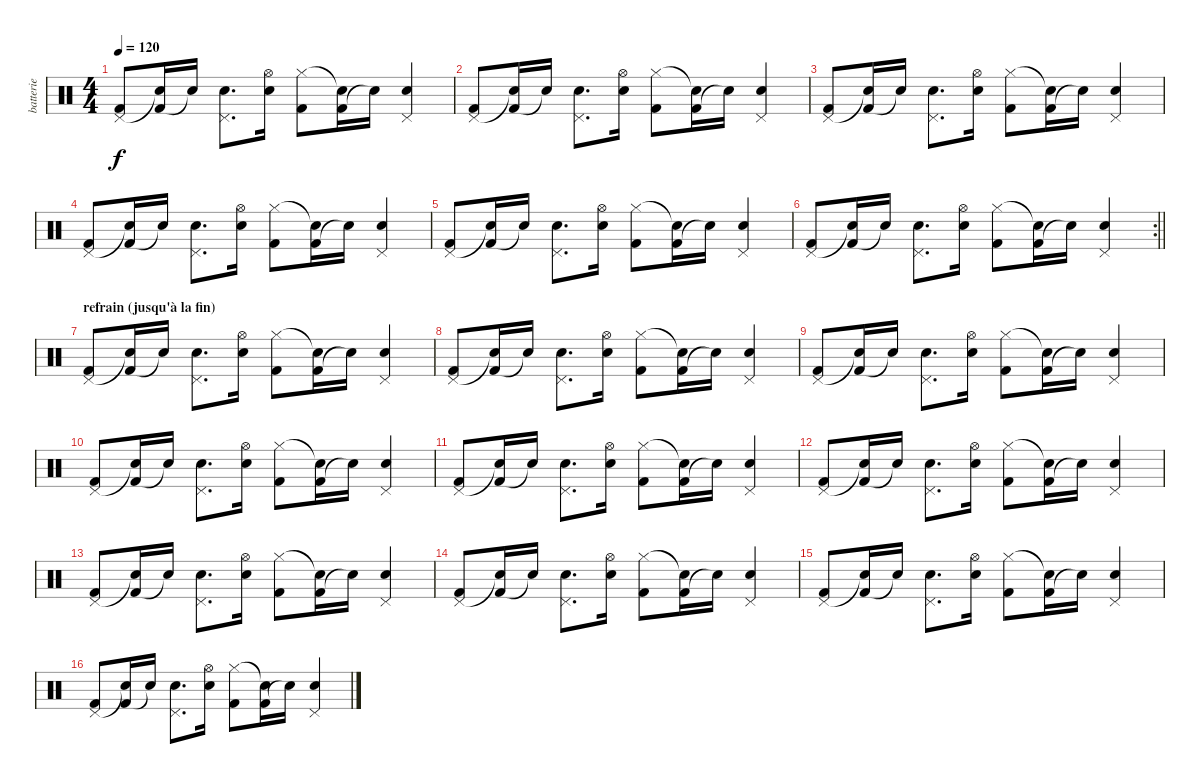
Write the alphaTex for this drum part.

\track ("batterie" "batterie") {instrument percussion}
\staff {score}
\articulation defaults
\ts (4 4)
\tempo 120
\clef neutral
\ks c
("Kick (hit) 2" "Pedal Hi-Hat (hit)").8{dy f} ("Kick (hit) 2" "Snare (hit)"{t}).16 "Snare (hit)"{t}.16 ("Snare (hit) 2" "Pedal Hi-Hat (hit)").8{d} ("Snare (hit) 2" "Hi-Hat (open)").16 ("Kick (hit) 2" "Hi-Hat (closed)").8 ("Kick (hit) 2" "Snare (hit)"{t}).16 "Snare (hit)"{t}.16 ("Snare (hit) 2" "Pedal Hi-Hat (hit)").4 |
("Kick (hit) 2" "Pedal Hi-Hat (hit)").8 ("Kick (hit) 2" "Snare (hit)"{t}).16 "Snare (hit)"{t}.16 ("Snare (hit) 2" "Pedal Hi-Hat (hit)").8{d} ("Snare (hit) 2" "Hi-Hat (open)").16 ("Kick (hit) 2" "Hi-Hat (closed)").8 ("Kick (hit) 2" "Snare (hit)"{t}).16 "Snare (hit)"{t}.16 ("Snare (hit) 2" "Pedal Hi-Hat (hit)").4 |
("Kick (hit) 2" "Pedal Hi-Hat (hit)").8 ("Kick (hit) 2" "Snare (hit)"{t}).16 "Snare (hit)"{t}.16 ("Snare (hit) 2" "Pedal Hi-Hat (hit)").8{d} ("Snare (hit) 2" "Hi-Hat (open)").16 ("Kick (hit) 2" "Hi-Hat (closed)").8 ("Kick (hit) 2" "Snare (hit)"{t}).16 "Snare (hit)"{t}.16 ("Snare (hit) 2" "Pedal Hi-Hat (hit)").4 |
("Kick (hit) 2" "Pedal Hi-Hat (hit)").8 ("Kick (hit) 2" "Snare (hit)"{t}).16 "Snare (hit)"{t}.16 ("Snare (hit) 2" "Pedal Hi-Hat (hit)").8{d} ("Snare (hit) 2" "Hi-Hat (open)").16 ("Kick (hit) 2" "Hi-Hat (closed)").8 ("Kick (hit) 2" "Snare (hit)"{t}).16 "Snare (hit)"{t}.16 ("Snare (hit) 2" "Pedal Hi-Hat (hit)").4 |
("Kick (hit) 2" "Pedal Hi-Hat (hit)").8 ("Kick (hit) 2" "Snare (hit)"{t}).16 "Snare (hit)"{t}.16 ("Snare (hit) 2" "Pedal Hi-Hat (hit)").8{d} ("Snare (hit) 2" "Hi-Hat (open)").16 ("Kick (hit) 2" "Hi-Hat (closed)").8 ("Kick (hit) 2" "Snare (hit)"{t}).16 "Snare (hit)"{t}.16 ("Snare (hit) 2" "Pedal Hi-Hat (hit)").4 |
\rc 2
\barLineRight lightlight
("Kick (hit) 2" "Pedal Hi-Hat (hit)").8 ("Kick (hit) 2" "Snare (hit)"{t}).16 "Snare (hit)"{t}.16 ("Snare (hit) 2" "Pedal Hi-Hat (hit)").8{d} ("Snare (hit) 2" "Hi-Hat (open)").16 ("Kick (hit) 2" "Hi-Hat (closed)").8 ("Kick (hit) 2" "Snare (hit)"{t}).16 "Snare (hit)"{t}.16 ("Snare (hit) 2" "Pedal Hi-Hat (hit)").4 |
\section ("" "refrain (jusqu'à la fin)")
("Kick (hit) 2" "Pedal Hi-Hat (hit)").8 ("Kick (hit) 2" "Snare (hit)"{t}).16 "Snare (hit)"{t}.16 ("Snare (hit) 2" "Pedal Hi-Hat (hit)").8{d} ("Snare (hit) 2" "Hi-Hat (open)").16 ("Kick (hit) 2" "Hi-Hat (closed)").8 ("Kick (hit) 2" "Snare (hit)"{t}).16 "Snare (hit)"{t}.16 ("Snare (hit) 2" "Pedal Hi-Hat (hit)").4 |
("Kick (hit) 2" "Pedal Hi-Hat (hit)").8 ("Kick (hit) 2" "Snare (hit)"{t}).16 "Snare (hit)"{t}.16 ("Snare (hit) 2" "Pedal Hi-Hat (hit)").8{d} ("Snare (hit) 2" "Hi-Hat (open)").16 ("Kick (hit) 2" "Hi-Hat (closed)").8 ("Kick (hit) 2" "Snare (hit)"{t}).16 "Snare (hit)"{t}.16 ("Snare (hit) 2" "Pedal Hi-Hat (hit)").4 |
("Kick (hit) 2" "Pedal Hi-Hat (hit)").8 ("Kick (hit) 2" "Snare (hit)"{t}).16 "Snare (hit)"{t}.16 ("Snare (hit) 2" "Pedal Hi-Hat (hit)").8{d} ("Snare (hit) 2" "Hi-Hat (open)").16 ("Kick (hit) 2" "Hi-Hat (closed)").8 ("Kick (hit) 2" "Snare (hit)"{t}).16 "Snare (hit)"{t}.16 ("Snare (hit) 2" "Pedal Hi-Hat (hit)").4 |
("Kick (hit) 2" "Pedal Hi-Hat (hit)").8 ("Kick (hit) 2" "Snare (hit)"{t}).16 "Snare (hit)"{t}.16 ("Snare (hit) 2" "Pedal Hi-Hat (hit)").8{d} ("Snare (hit) 2" "Hi-Hat (open)").16 ("Kick (hit) 2" "Hi-Hat (closed)").8 ("Kick (hit) 2" "Snare (hit)"{t}).16 "Snare (hit)"{t}.16 ("Snare (hit) 2" "Pedal Hi-Hat (hit)").4 |
("Kick (hit) 2" "Pedal Hi-Hat (hit)").8 ("Kick (hit) 2" "Snare (hit)"{t}).16 "Snare (hit)"{t}.16 ("Snare (hit) 2" "Pedal Hi-Hat (hit)").8{d} ("Snare (hit) 2" "Hi-Hat (open)").16 ("Kick (hit) 2" "Hi-Hat (closed)").8 ("Kick (hit) 2" "Snare (hit)"{t}).16 "Snare (hit)"{t}.16 ("Snare (hit) 2" "Pedal Hi-Hat (hit)").4 |
("Kick (hit) 2" "Pedal Hi-Hat (hit)").8 ("Kick (hit) 2" "Snare (hit)"{t}).16 "Snare (hit)"{t}.16 ("Snare (hit) 2" "Pedal Hi-Hat (hit)").8{d} ("Snare (hit) 2" "Hi-Hat (open)").16 ("Kick (hit) 2" "Hi-Hat (closed)").8 ("Kick (hit) 2" "Snare (hit)"{t}).16 "Snare (hit)"{t}.16 ("Snare (hit) 2" "Pedal Hi-Hat (hit)").4 |
("Kick (hit) 2" "Pedal Hi-Hat (hit)").8 ("Kick (hit) 2" "Snare (hit)"{t}).16 "Snare (hit)"{t}.16 ("Snare (hit) 2" "Pedal Hi-Hat (hit)").8{d} ("Snare (hit) 2" "Hi-Hat (open)").16 ("Kick (hit) 2" "Hi-Hat (closed)").8 ("Kick (hit) 2" "Snare (hit)"{t}).16 "Snare (hit)"{t}.16 ("Snare (hit) 2" "Pedal Hi-Hat (hit)").4 |
("Kick (hit) 2" "Pedal Hi-Hat (hit)").8 ("Kick (hit) 2" "Snare (hit)"{t}).16 "Snare (hit)"{t}.16 ("Snare (hit) 2" "Pedal Hi-Hat (hit)").8{d} ("Snare (hit) 2" "Hi-Hat (open)").16 ("Kick (hit) 2" "Hi-Hat (closed)").8 ("Kick (hit) 2" "Snare (hit)"{t}).16 "Snare (hit)"{t}.16 ("Snare (hit) 2" "Pedal Hi-Hat (hit)").4 |
("Kick (hit) 2" "Pedal Hi-Hat (hit)").8 ("Kick (hit) 2" "Snare (hit)"{t}).16 "Snare (hit)"{t}.16 ("Snare (hit) 2" "Pedal Hi-Hat (hit)").8{d} ("Snare (hit) 2" "Hi-Hat (open)").16 ("Kick (hit) 2" "Hi-Hat (closed)").8 ("Kick (hit) 2" "Snare (hit)"{t}).16 "Snare (hit)"{t}.16 ("Snare (hit) 2" "Pedal Hi-Hat (hit)").4 |
("Kick (hit) 2" "Pedal Hi-Hat (hit)").8 ("Kick (hit) 2" "Snare (hit)"{t}).16 "Snare (hit)"{t}.16 ("Snare (hit) 2" "Pedal Hi-Hat (hit)").8{d} ("Snare (hit) 2" "Hi-Hat (open)").16 ("Kick (hit) 2" "Hi-Hat (closed)").8 ("Kick (hit) 2" "Snare (hit)"{t}).16 "Snare (hit)"{t}.16 ("Snare (hit) 2" "Pedal Hi-Hat (hit)").4
